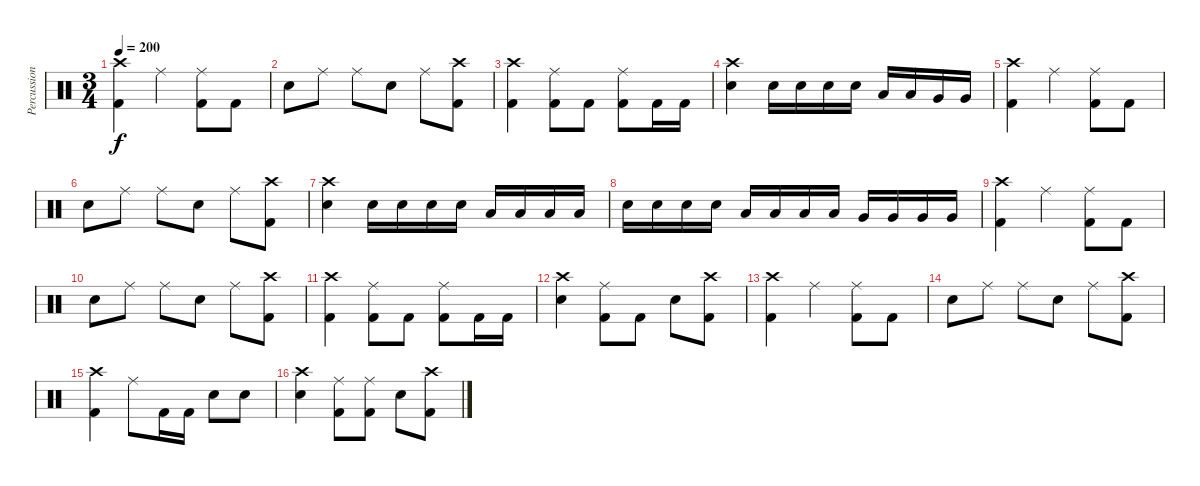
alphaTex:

\track ("Percussion" "Percussion") {instrument percussion}
\staff {score}
\articulation defaults
\ts (3 4)
\tempo 200
\clef neutral
\ks c
("Crash high (hit)" "Kick (hit) 2").4{dy f} "Ride (middle)".4 ("Ride (middle)" "Kick (hit) 2").8 "Kick (hit) 2".8 |
"Electric Snare (hit)".8 "Ride (middle)".8 "Ride (middle)".8 "Electric Snare (hit)".8 "Ride (middle)".8 ("Crash high (hit)" "Kick (hit) 2").8 |
("Crash high (hit)" "Kick (hit) 2").4 ("Ride (middle)" "Kick (hit) 2").8 "Kick (hit) 2".8 ("Ride (middle)" "Kick (hit) 2").8 "Kick (hit) 2".16 "Kick (hit) 2".16 |
("Crash high (hit)" "Electric Snare (hit)").4 "Electric Snare (hit)".16 "Electric Snare (hit)".16 "Electric Snare (hit)".16 "Electric Snare (hit)".16 "Low Tom (hit)".16 "Low Tom (hit)".16 "Very Low Tom (hit)".16 "Very Low Tom (hit)".16 |
("Crash high (hit)" "Kick (hit) 2").4 "Ride (middle)".4 ("Ride (middle)" "Kick (hit) 2").8 "Kick (hit) 2".8 |
"Electric Snare (hit)".8 "Ride (middle)".8 "Ride (middle)".8 "Electric Snare (hit)".8 "Ride (middle)".8 ("Crash high (hit)" "Kick (hit) 2").8 |
("Crash high (hit)" "Electric Snare (hit)").4 "Electric Snare (hit)".16 "Electric Snare (hit)".16 "Electric Snare (hit)".16 "Electric Snare (hit)".16 "Low Tom (hit)".16 "Low Tom (hit)".16 "Low Tom (hit)".16 "Low Tom (hit)".16 |
"Electric Snare (hit)".16 "Electric Snare (hit)".16 "Electric Snare (hit)".16 "Electric Snare (hit)".16 "Low Tom (hit)".16 "Low Tom (hit)".16 "Low Tom (hit)".16 "Low Tom (hit)".16 "Very Low Tom (hit)".16 "Very Low Tom (hit)".16 "Very Low Tom (hit)".16 "Very Low Tom (hit)".16 |
("Crash high (hit)" "Kick (hit) 2").4 "Ride (middle)".4 ("Ride (middle)" "Kick (hit) 2").8 "Kick (hit) 2".8 |
"Electric Snare (hit)".8 "Ride (middle)".8 "Ride (middle)".8 "Electric Snare (hit)".8 "Ride (middle)".8 ("Crash high (hit)" "Kick (hit) 2").8 |
("Crash high (hit)" "Kick (hit) 2").4 ("Ride (middle)" "Kick (hit) 2").8 "Kick (hit) 2".8 ("Ride (middle)" "Kick (hit) 2").8 "Kick (hit) 2".16 "Kick (hit) 2".16 |
("Crash high (hit)" "Electric Snare (hit)").4 ("Ride (middle)" "Kick (hit) 2").8 "Kick (hit) 2".8 "Electric Snare (hit)".8 ("Crash high (hit)" "Kick (hit) 2").8 |
("Crash high (hit)" "Kick (hit) 2").4 "Ride (middle)".4 ("Ride (middle)" "Kick (hit) 2").8 "Kick (hit) 2".8 |
"Electric Snare (hit)".8 "Ride (middle)".8 "Ride (middle)".8 "Electric Snare (hit)".8 "Ride (middle)".8 ("Crash high (hit)" "Kick (hit) 2").8 |
("Crash high (hit)" "Kick (hit) 2").4 "Ride (middle)".8 "Kick (hit) 2".16 "Kick (hit) 2".16 "Electric Snare (hit)".8 "Electric Snare (hit)".8 |
("Crash high (hit)" "Electric Snare (hit)").4 ("Ride (middle)" "Kick (hit) 2").8 ("Ride (middle)" "Kick (hit) 2").8 "Electric Snare (hit)".8 ("Crash high (hit)" "Kick (hit) 2").8
